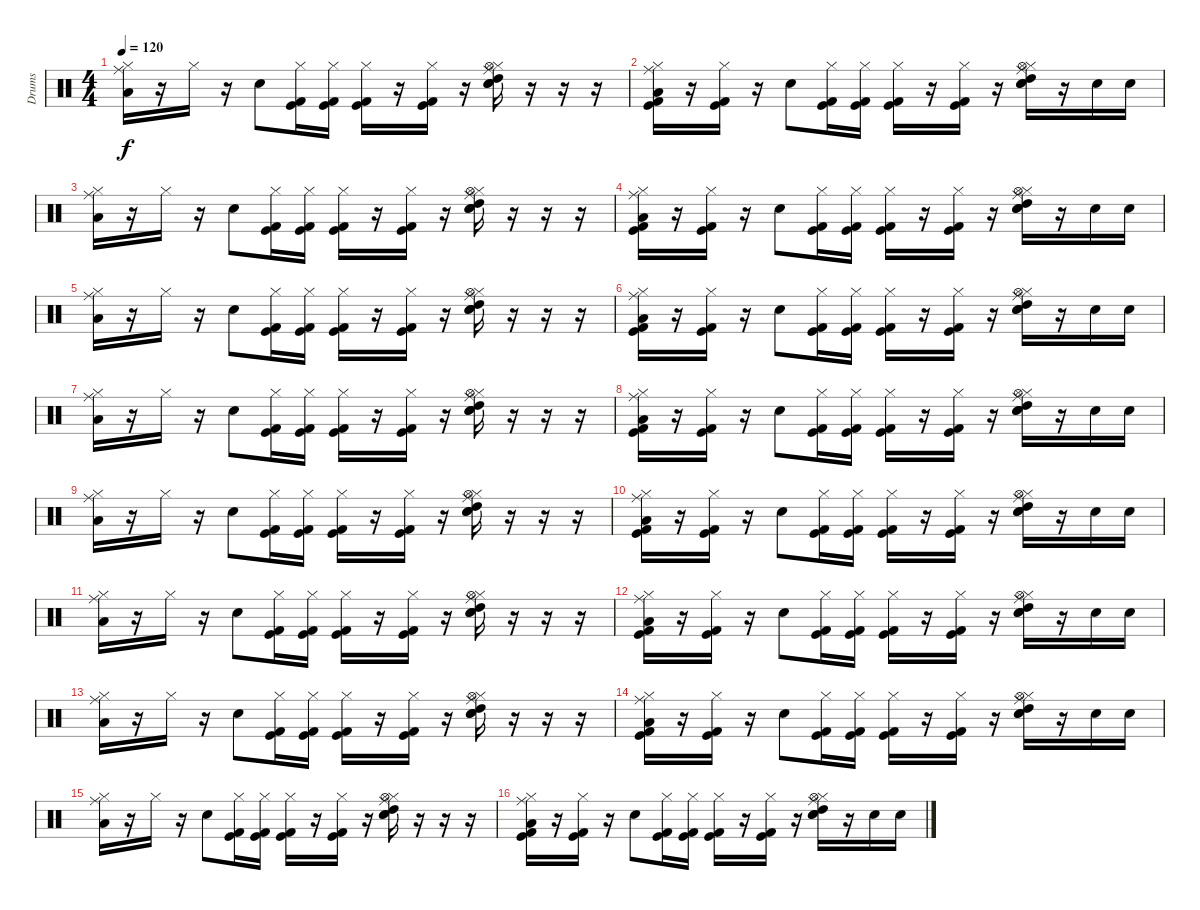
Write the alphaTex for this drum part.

\track ("Drums" "Drums") {instrument percussion}
\staff {score}
\articulation defaults
\ts (4 4)
\tempo 120
\clef neutral
\ks c
("Hi-Hat (closed)" "Ride (middle)" "Low Tom (hit)").16{dy f} r.16 "Hi-Hat (closed)".16 r.16 "Snare (hit) 2".8 ("Kick (hit)" "Hi-Hat (closed)" "Kick (hit) 2").16 ("Kick (hit)" "Hi-Hat (closed)" "Kick (hit) 2").16 ("Kick (hit)" "Hi-Hat (closed)" "Kick (hit) 2").16 r.16 ("Kick (hit)" "Hi-Hat (closed)" "Kick (hit) 2").16 r.16 ("Snare (hit) 2" "Ride (middle)" "Hi-Hat (closed)" "Hi-Hat (open)" "High Tom (hit)" "Electric Snare (hit)").16 r.16 r.16 r.16 |
("Kick (hit)" "Hi-Hat (closed)" "Ride (middle)" "Low Tom (hit)" "Kick (hit) 2").16 r.16 ("Kick (hit)" "Hi-Hat (closed)" "Kick (hit) 2").16 r.16 "Snare (hit) 2".8 ("Kick (hit)" "Hi-Hat (closed)" "Kick (hit) 2").16 ("Kick (hit)" "Hi-Hat (closed)" "Kick (hit) 2").16 ("Kick (hit)" "Hi-Hat (closed)" "Kick (hit) 2").16 r.16 ("Kick (hit)" "Hi-Hat (closed)" "Kick (hit) 2").16 r.16 ("Snare (hit) 2" "Ride (middle)" "Hi-Hat (closed)" "Hi-Hat (open)" "High Tom (hit)" "Electric Snare (hit)").16 r.16 "Electric Snare (hit)".16 "Electric Snare (hit)".16 |
("Hi-Hat (closed)" "Ride (middle)" "Low Tom (hit)").16 r.16 "Hi-Hat (closed)".16 r.16 "Snare (hit) 2".8 ("Kick (hit)" "Hi-Hat (closed)" "Kick (hit) 2").16 ("Kick (hit)" "Hi-Hat (closed)" "Kick (hit) 2").16 ("Kick (hit)" "Hi-Hat (closed)" "Kick (hit) 2").16 r.16 ("Kick (hit)" "Hi-Hat (closed)" "Kick (hit) 2").16 r.16 ("Snare (hit) 2" "Ride (middle)" "Hi-Hat (closed)" "Hi-Hat (open)" "High Tom (hit)" "Electric Snare (hit)").16 r.16 r.16 r.16 |
("Kick (hit)" "Hi-Hat (closed)" "Ride (middle)" "Low Tom (hit)" "Kick (hit) 2").16 r.16 ("Kick (hit)" "Hi-Hat (closed)" "Kick (hit) 2").16 r.16 "Snare (hit) 2".8 ("Kick (hit)" "Hi-Hat (closed)" "Kick (hit) 2").16 ("Kick (hit)" "Hi-Hat (closed)" "Kick (hit) 2").16 ("Kick (hit)" "Hi-Hat (closed)" "Kick (hit) 2").16 r.16 ("Kick (hit)" "Hi-Hat (closed)" "Kick (hit) 2").16 r.16 ("Snare (hit) 2" "Ride (middle)" "Hi-Hat (closed)" "Hi-Hat (open)" "High Tom (hit)" "Electric Snare (hit)").16 r.16 "Electric Snare (hit)".16 "Electric Snare (hit)".16 |
("Hi-Hat (closed)" "Ride (middle)" "Low Tom (hit)").16 r.16 "Hi-Hat (closed)".16 r.16 "Snare (hit) 2".8 ("Kick (hit)" "Hi-Hat (closed)" "Kick (hit) 2").16 ("Kick (hit)" "Hi-Hat (closed)" "Kick (hit) 2").16 ("Kick (hit)" "Hi-Hat (closed)" "Kick (hit) 2").16 r.16 ("Kick (hit)" "Hi-Hat (closed)" "Kick (hit) 2").16 r.16 ("Snare (hit) 2" "Ride (middle)" "Hi-Hat (closed)" "Hi-Hat (open)" "High Tom (hit)" "Electric Snare (hit)").16 r.16 r.16 r.16 |
("Kick (hit)" "Hi-Hat (closed)" "Ride (middle)" "Low Tom (hit)" "Kick (hit) 2").16 r.16 ("Kick (hit)" "Hi-Hat (closed)" "Kick (hit) 2").16 r.16 "Snare (hit) 2".8 ("Kick (hit)" "Hi-Hat (closed)" "Kick (hit) 2").16 ("Kick (hit)" "Hi-Hat (closed)" "Kick (hit) 2").16 ("Kick (hit)" "Hi-Hat (closed)" "Kick (hit) 2").16 r.16 ("Kick (hit)" "Hi-Hat (closed)" "Kick (hit) 2").16 r.16 ("Snare (hit) 2" "Ride (middle)" "Hi-Hat (closed)" "Hi-Hat (open)" "High Tom (hit)" "Electric Snare (hit)").16 r.16 "Electric Snare (hit)".16 "Electric Snare (hit)".16 |
("Hi-Hat (closed)" "Ride (middle)" "Low Tom (hit)").16 r.16 "Hi-Hat (closed)".16 r.16 "Snare (hit) 2".8 ("Kick (hit)" "Hi-Hat (closed)" "Kick (hit) 2").16 ("Kick (hit)" "Hi-Hat (closed)" "Kick (hit) 2").16 ("Kick (hit)" "Hi-Hat (closed)" "Kick (hit) 2").16 r.16 ("Kick (hit)" "Hi-Hat (closed)" "Kick (hit) 2").16 r.16 ("Snare (hit) 2" "Ride (middle)" "Hi-Hat (closed)" "Hi-Hat (open)" "High Tom (hit)" "Electric Snare (hit)").16 r.16 r.16 r.16 |
("Kick (hit)" "Hi-Hat (closed)" "Ride (middle)" "Low Tom (hit)" "Kick (hit) 2").16 r.16 ("Kick (hit)" "Hi-Hat (closed)" "Kick (hit) 2").16 r.16 "Snare (hit) 2".8 ("Kick (hit)" "Hi-Hat (closed)" "Kick (hit) 2").16 ("Kick (hit)" "Hi-Hat (closed)" "Kick (hit) 2").16 ("Kick (hit)" "Hi-Hat (closed)" "Kick (hit) 2").16 r.16 ("Kick (hit)" "Hi-Hat (closed)" "Kick (hit) 2").16 r.16 ("Snare (hit) 2" "Ride (middle)" "Hi-Hat (closed)" "Hi-Hat (open)" "High Tom (hit)" "Electric Snare (hit)").16 r.16 "Electric Snare (hit)".16 "Electric Snare (hit)".16 |
("Hi-Hat (closed)" "Ride (middle)" "Low Tom (hit)").16 r.16 "Hi-Hat (closed)".16 r.16 "Snare (hit) 2".8 ("Kick (hit)" "Hi-Hat (closed)" "Kick (hit) 2").16 ("Kick (hit)" "Hi-Hat (closed)" "Kick (hit) 2").16 ("Kick (hit)" "Hi-Hat (closed)" "Kick (hit) 2").16 r.16 ("Kick (hit)" "Hi-Hat (closed)" "Kick (hit) 2").16 r.16 ("Snare (hit) 2" "Ride (middle)" "Hi-Hat (closed)" "Hi-Hat (open)" "High Tom (hit)" "Electric Snare (hit)").16 r.16 r.16 r.16 |
("Kick (hit)" "Hi-Hat (closed)" "Ride (middle)" "Low Tom (hit)" "Kick (hit) 2").16 r.16 ("Kick (hit)" "Hi-Hat (closed)" "Kick (hit) 2").16 r.16 "Snare (hit) 2".8 ("Kick (hit)" "Hi-Hat (closed)" "Kick (hit) 2").16 ("Kick (hit)" "Hi-Hat (closed)" "Kick (hit) 2").16 ("Kick (hit)" "Hi-Hat (closed)" "Kick (hit) 2").16 r.16 ("Kick (hit)" "Hi-Hat (closed)" "Kick (hit) 2").16 r.16 ("Snare (hit) 2" "Ride (middle)" "Hi-Hat (closed)" "Hi-Hat (open)" "High Tom (hit)" "Electric Snare (hit)").16 r.16 "Electric Snare (hit)".16 "Electric Snare (hit)".16 |
("Hi-Hat (closed)" "Ride (middle)" "Low Tom (hit)").16 r.16 "Hi-Hat (closed)".16 r.16 "Snare (hit) 2".8 ("Kick (hit)" "Hi-Hat (closed)" "Kick (hit) 2").16 ("Kick (hit)" "Hi-Hat (closed)" "Kick (hit) 2").16 ("Kick (hit)" "Hi-Hat (closed)" "Kick (hit) 2").16 r.16 ("Kick (hit)" "Hi-Hat (closed)" "Kick (hit) 2").16 r.16 ("Snare (hit) 2" "Ride (middle)" "Hi-Hat (closed)" "Hi-Hat (open)" "High Tom (hit)" "Electric Snare (hit)").16 r.16 r.16 r.16 |
("Kick (hit)" "Hi-Hat (closed)" "Ride (middle)" "Low Tom (hit)" "Kick (hit) 2").16 r.16 ("Kick (hit)" "Hi-Hat (closed)" "Kick (hit) 2").16 r.16 "Snare (hit) 2".8 ("Kick (hit)" "Hi-Hat (closed)" "Kick (hit) 2").16 ("Kick (hit)" "Hi-Hat (closed)" "Kick (hit) 2").16 ("Kick (hit)" "Hi-Hat (closed)" "Kick (hit) 2").16 r.16 ("Kick (hit)" "Hi-Hat (closed)" "Kick (hit) 2").16 r.16 ("Snare (hit) 2" "Ride (middle)" "Hi-Hat (closed)" "Hi-Hat (open)" "High Tom (hit)" "Electric Snare (hit)").16 r.16 "Electric Snare (hit)".16 "Electric Snare (hit)".16 |
("Hi-Hat (closed)" "Ride (middle)" "Low Tom (hit)").16 r.16 "Hi-Hat (closed)".16 r.16 "Snare (hit) 2".8 ("Kick (hit)" "Hi-Hat (closed)" "Kick (hit) 2").16 ("Kick (hit)" "Hi-Hat (closed)" "Kick (hit) 2").16 ("Kick (hit)" "Hi-Hat (closed)" "Kick (hit) 2").16 r.16 ("Kick (hit)" "Hi-Hat (closed)" "Kick (hit) 2").16 r.16 ("Snare (hit) 2" "Ride (middle)" "Hi-Hat (closed)" "Hi-Hat (open)" "High Tom (hit)" "Electric Snare (hit)").16 r.16 r.16 r.16 |
("Kick (hit)" "Hi-Hat (closed)" "Ride (middle)" "Low Tom (hit)" "Kick (hit) 2").16 r.16 ("Kick (hit)" "Hi-Hat (closed)" "Kick (hit) 2").16 r.16 "Snare (hit) 2".8 ("Kick (hit)" "Hi-Hat (closed)" "Kick (hit) 2").16 ("Kick (hit)" "Hi-Hat (closed)" "Kick (hit) 2").16 ("Kick (hit)" "Hi-Hat (closed)" "Kick (hit) 2").16 r.16 ("Kick (hit)" "Hi-Hat (closed)" "Kick (hit) 2").16 r.16 ("Snare (hit) 2" "Ride (middle)" "Hi-Hat (closed)" "Hi-Hat (open)" "High Tom (hit)" "Electric Snare (hit)").16 r.16 "Electric Snare (hit)".16 "Electric Snare (hit)".16 |
("Hi-Hat (closed)" "Ride (middle)" "Low Tom (hit)").16 r.16 "Hi-Hat (closed)".16 r.16 "Snare (hit) 2".8 ("Kick (hit)" "Hi-Hat (closed)" "Kick (hit) 2").16 ("Kick (hit)" "Hi-Hat (closed)" "Kick (hit) 2").16 ("Kick (hit)" "Hi-Hat (closed)" "Kick (hit) 2").16 r.16 ("Kick (hit)" "Hi-Hat (closed)" "Kick (hit) 2").16 r.16 ("Snare (hit) 2" "Ride (middle)" "Hi-Hat (closed)" "Hi-Hat (open)" "High Tom (hit)" "Electric Snare (hit)").16 r.16 r.16 r.16 |
("Kick (hit)" "Hi-Hat (closed)" "Ride (middle)" "Low Tom (hit)" "Kick (hit) 2").16 r.16 ("Kick (hit)" "Hi-Hat (closed)" "Kick (hit) 2").16 r.16 "Snare (hit) 2".8 ("Kick (hit)" "Hi-Hat (closed)" "Kick (hit) 2").16 ("Kick (hit)" "Hi-Hat (closed)" "Kick (hit) 2").16 ("Kick (hit)" "Hi-Hat (closed)" "Kick (hit) 2").16 r.16 ("Kick (hit)" "Hi-Hat (closed)" "Kick (hit) 2").16 r.16 ("Snare (hit) 2" "Ride (middle)" "Hi-Hat (closed)" "Hi-Hat (open)" "High Tom (hit)" "Electric Snare (hit)").16 r.16 "Electric Snare (hit)".16 "Electric Snare (hit)".16
